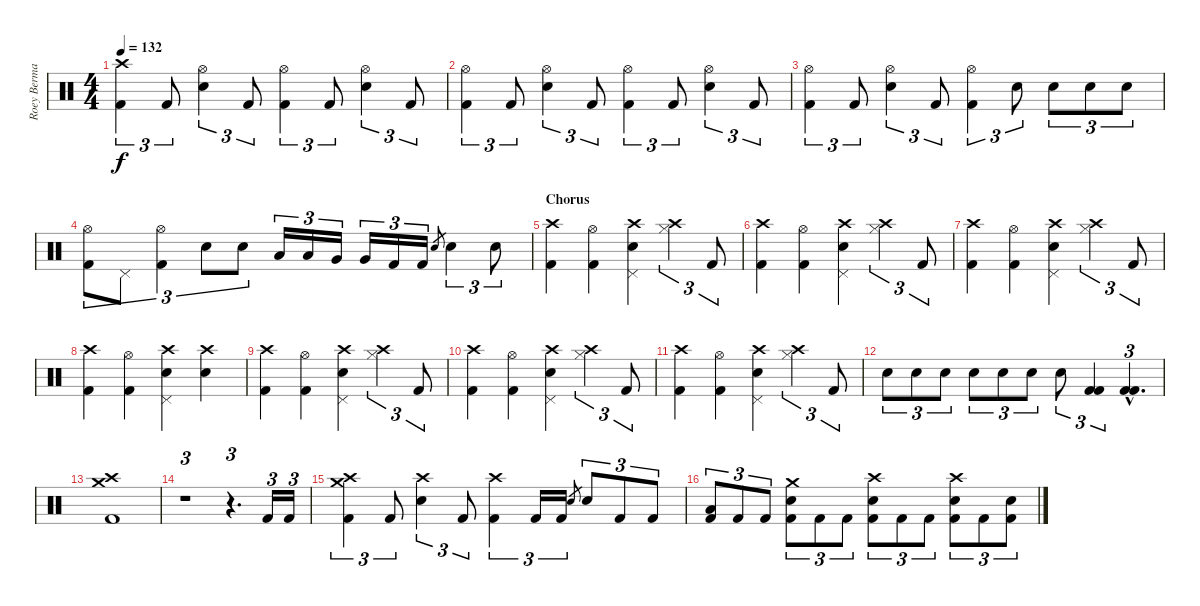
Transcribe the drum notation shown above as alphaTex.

\track ("Roey Berman" "Roey Berma") {instrument percussion}
\staff {score}
\articulation defaults
\ts (4 4)
\tempo 132
\clef neutral
\ks c
("Crash high (hit)" "Kick (hit) 2").4{tu (3 2) dy f} "Kick (hit) 2".8{tu (3 2)} ("Hi-Hat (open)" "Electric Snare (hit)").4{tu (3 2)} "Kick (hit) 2".8{tu (3 2)} ("Hi-Hat (open)" "Kick (hit) 2").4{tu (3 2)} "Kick (hit) 2".8{tu (3 2)} ("Hi-Hat (open)" "Electric Snare (hit)").4{tu (3 2)} "Kick (hit) 2".8{tu (3 2)} |
("Hi-Hat (open)" "Kick (hit) 2").4{tu (3 2)} "Kick (hit) 2".8{tu (3 2)} ("Hi-Hat (open)" "Electric Snare (hit)").4{tu (3 2)} "Kick (hit) 2".8{tu (3 2)} ("Hi-Hat (open)" "Kick (hit) 2").4{tu (3 2)} "Kick (hit) 2".8{tu (3 2)} ("Hi-Hat (open)" "Electric Snare (hit)").4{tu (3 2)} "Kick (hit) 2".8{tu (3 2)} |
("Hi-Hat (open)" "Kick (hit) 2").4{tu (3 2)} "Kick (hit) 2".8{tu (3 2)} ("Hi-Hat (open)" "Electric Snare (hit)").4{tu (3 2)} "Kick (hit) 2".8{tu (3 2)} ("Hi-Hat (open)" "Kick (hit) 2").4{tu (3 2)} "Electric Snare (hit)".8{tu (3 2)} "Electric Snare (hit)".8{tu (3 2)} "Electric Snare (hit)".8{tu (3 2)} "Electric Snare (hit)".8{tu (3 2)} |
("Hi-Hat (open)" "Kick (hit) 2").8{tu (3 2)} "Pedal Hi-Hat (hit)".8{tu (3 2)} ("Hi-Hat (open)" "Kick (hit) 2").4{tu (3 2)} "Electric Snare (hit)".8{tu (3 2)} "Electric Snare (hit)".8{tu (3 2)} "Low Tom (hit)".16{tu (3 2)} "Low Tom (hit)".16{tu (3 2)} "Very Low Tom (hit)".16{tu (3 2)} "Very Low Tom (hit)".16{tu (3 2)} "Kick (hit) 2".16{tu (3 2)} "Kick (hit) 2".16{tu (3 2)} "Electric Snare (hit)".8{gr} "Electric Snare (hit)".4{tu (3 2)} "Electric Snare (hit)".8{tu (3 2)} |
\section ("" "Chorus")
("Crash high (hit)" "Kick (hit) 2").4 ("Hi-Hat (open)" "Kick (hit) 2").4 ("Crash high (hit)" "Pedal Hi-Hat (hit)" "Electric Snare (hit)").4 ("Crash high (hit)" "Hi-Hat (closed)").4{tu (3 2)} "Kick (hit) 2".8{tu (3 2)} |
("Crash high (hit)" "Kick (hit) 2").4 ("Hi-Hat (open)" "Kick (hit) 2").4 ("Crash high (hit)" "Pedal Hi-Hat (hit)" "Electric Snare (hit)").4 ("Crash high (hit)" "Hi-Hat (closed)").4{tu (3 2)} "Kick (hit) 2".8{tu (3 2)} |
("Crash high (hit)" "Kick (hit) 2").4 ("Hi-Hat (open)" "Kick (hit) 2").4 ("Crash high (hit)" "Pedal Hi-Hat (hit)" "Electric Snare (hit)").4 ("Crash high (hit)" "Hi-Hat (closed)").4{tu (3 2)} "Kick (hit) 2".8{tu (3 2)} |
("Crash high (hit)" "Kick (hit) 2").4 ("Hi-Hat (open)" "Kick (hit) 2").4 ("Crash high (hit)" "Pedal Hi-Hat (hit)" "Electric Snare (hit)").4 ("Crash high (hit)" "Electric Snare (hit)").4 |
("Crash high (hit)" "Kick (hit) 2").4 ("Hi-Hat (open)" "Kick (hit) 2").4 ("Crash high (hit)" "Pedal Hi-Hat (hit)" "Electric Snare (hit)").4 ("Crash high (hit)" "Hi-Hat (closed)").4{tu (3 2)} "Kick (hit) 2".8{tu (3 2)} |
("Crash high (hit)" "Kick (hit) 2").4 ("Hi-Hat (open)" "Kick (hit) 2").4 ("Crash high (hit)" "Pedal Hi-Hat (hit)" "Electric Snare (hit)").4 ("Crash high (hit)" "Hi-Hat (closed)").4{tu (3 2)} "Kick (hit) 2".8{tu (3 2)} |
("Crash high (hit)" "Kick (hit) 2").4 ("Hi-Hat (open)" "Kick (hit) 2").4 ("Crash high (hit)" "Pedal Hi-Hat (hit)" "Electric Snare (hit)").4 ("Crash high (hit)" "Hi-Hat (closed)").4{tu (3 2)} "Kick (hit) 2".8{tu (3 2)} |
"Electric Snare (hit)".8{tu (3 2)} "Electric Snare (hit)".8{tu (3 2)} "Electric Snare (hit)".8{tu (3 2)} "Electric Snare (hit)".8{tu (3 2)} "Electric Snare (hit)".8{tu (3 2)} "Electric Snare (hit)".8{tu (3 2)} "Electric Snare (hit)".8{tu (3 2)} ("Kick (hit) 2" "Kick (hit) 2").4{tu (3 2)} ("Kick (hit) 2"{hac} "Kick (hit) 2"{hac}).4{d tu (3 2)} |
\section ("" "")
("Crash medium (hit)" "Crash high (hit)" "Kick (hit) 2").1 |
r.1{tu (3 2)} r.4{d tu (3 2)} "Kick (hit) 2".16{tu (3 2)} "Kick (hit) 2".16{tu (3 2)} |
("Crash high (hit)" "Crash medium (hit)" "Kick (hit) 2").4{tu (3 2)} "Kick (hit) 2".8{tu (3 2)} ("Crash high (hit)" "Electric Snare (hit)").4{tu (3 2)} "Kick (hit) 2".8{tu (3 2)} ("Crash high (hit)" "Kick (hit) 2").4{tu (3 2)} "Kick (hit) 2".16{tu (3 2)} "Kick (hit) 2".16{tu (3 2)} "Electric Snare (hit)".8{gr} "Electric Snare (hit)".8{tu (3 2)} "Kick (hit) 2".8{tu (3 2)} "Kick (hit) 2".8{tu (3 2)} |
("Low Tom (hit)" "Kick (hit) 2").8{tu (3 2)} "Kick (hit) 2".8{tu (3 2)} "Kick (hit) 2".8{tu (3 2)} ("Crash medium (hit)" "Electric Snare (hit)" "Kick (hit) 2").8{tu (3 2)} "Kick (hit) 2".8{tu (3 2)} "Kick (hit) 2".8{tu (3 2)} ("Crash high (hit)" "Electric Snare (hit)" "Kick (hit) 2").8{tu (3 2)} "Kick (hit) 2".8{tu (3 2)} "Kick (hit) 2".8{tu (3 2)} ("Crash high (hit)" "Electric Snare (hit)" "Kick (hit) 2").8{tu (3 2)} "Kick (hit) 2".8{tu (3 2)} ("Electric Snare (hit)" "Kick (hit) 2").8{tu (3 2)}
